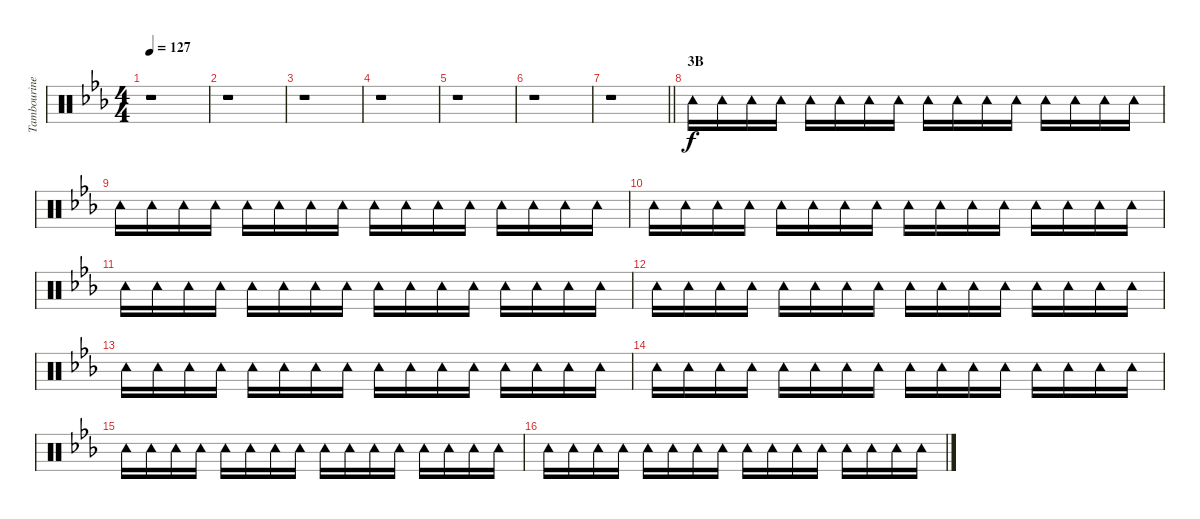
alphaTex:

\track ("Tambourine" "Tambourine") {instrument percussion}
\staff {score}
\articulation defaults
\ts (4 4)
\tempo 127
\clef neutral
\ks eb
r.1{dy mp} |
r.1 |
r.1 |
r.1 |
r.1 |
r.1 |
\barLineRight lightlight
r.1 |
\section ("" "3B")
"Tambourine (hit)".16{dy f} "Tambourine (hit)".16 "Tambourine (hit)".16 "Tambourine (hit)".16 "Tambourine (hit)".16 "Tambourine (hit)".16 "Tambourine (hit)".16 "Tambourine (hit)".16 "Tambourine (hit)".16 "Tambourine (hit)".16 "Tambourine (hit)".16 "Tambourine (hit)".16 "Tambourine (hit)".16 "Tambourine (hit)".16 "Tambourine (hit)".16 "Tambourine (hit)".16 |
"Tambourine (hit)".16 "Tambourine (hit)".16 "Tambourine (hit)".16 "Tambourine (hit)".16 "Tambourine (hit)".16 "Tambourine (hit)".16 "Tambourine (hit)".16 "Tambourine (hit)".16 "Tambourine (hit)".16 "Tambourine (hit)".16 "Tambourine (hit)".16 "Tambourine (hit)".16 "Tambourine (hit)".16 "Tambourine (hit)".16 "Tambourine (hit)".16 "Tambourine (hit)".16 |
"Tambourine (hit)".16 "Tambourine (hit)".16 "Tambourine (hit)".16 "Tambourine (hit)".16 "Tambourine (hit)".16 "Tambourine (hit)".16 "Tambourine (hit)".16 "Tambourine (hit)".16 "Tambourine (hit)".16 "Tambourine (hit)".16 "Tambourine (hit)".16 "Tambourine (hit)".16 "Tambourine (hit)".16 "Tambourine (hit)".16 "Tambourine (hit)".16 "Tambourine (hit)".16 |
"Tambourine (hit)".16 "Tambourine (hit)".16 "Tambourine (hit)".16 "Tambourine (hit)".16 "Tambourine (hit)".16 "Tambourine (hit)".16 "Tambourine (hit)".16 "Tambourine (hit)".16 "Tambourine (hit)".16 "Tambourine (hit)".16 "Tambourine (hit)".16 "Tambourine (hit)".16 "Tambourine (hit)".16 "Tambourine (hit)".16 "Tambourine (hit)".16 "Tambourine (hit)".16 |
"Tambourine (hit)".16 "Tambourine (hit)".16 "Tambourine (hit)".16 "Tambourine (hit)".16 "Tambourine (hit)".16 "Tambourine (hit)".16 "Tambourine (hit)".16 "Tambourine (hit)".16 "Tambourine (hit)".16 "Tambourine (hit)".16 "Tambourine (hit)".16 "Tambourine (hit)".16 "Tambourine (hit)".16 "Tambourine (hit)".16 "Tambourine (hit)".16 "Tambourine (hit)".16 |
"Tambourine (hit)".16 "Tambourine (hit)".16 "Tambourine (hit)".16 "Tambourine (hit)".16 "Tambourine (hit)".16 "Tambourine (hit)".16 "Tambourine (hit)".16 "Tambourine (hit)".16 "Tambourine (hit)".16 "Tambourine (hit)".16 "Tambourine (hit)".16 "Tambourine (hit)".16 "Tambourine (hit)".16 "Tambourine (hit)".16 "Tambourine (hit)".16 "Tambourine (hit)".16 |
"Tambourine (hit)".16 "Tambourine (hit)".16 "Tambourine (hit)".16 "Tambourine (hit)".16 "Tambourine (hit)".16 "Tambourine (hit)".16 "Tambourine (hit)".16 "Tambourine (hit)".16 "Tambourine (hit)".16 "Tambourine (hit)".16 "Tambourine (hit)".16 "Tambourine (hit)".16 "Tambourine (hit)".16 "Tambourine (hit)".16 "Tambourine (hit)".16 "Tambourine (hit)".16 |
"Tambourine (hit)".16 "Tambourine (hit)".16 "Tambourine (hit)".16 "Tambourine (hit)".16 "Tambourine (hit)".16 "Tambourine (hit)".16 "Tambourine (hit)".16 "Tambourine (hit)".16 "Tambourine (hit)".16 "Tambourine (hit)".16 "Tambourine (hit)".16 "Tambourine (hit)".16 "Tambourine (hit)".16 "Tambourine (hit)".16 "Tambourine (hit)".16 "Tambourine (hit)".16 |
"Tambourine (hit)".16 "Tambourine (hit)".16 "Tambourine (hit)".16 "Tambourine (hit)".16 "Tambourine (hit)".16 "Tambourine (hit)".16 "Tambourine (hit)".16 "Tambourine (hit)".16 "Tambourine (hit)".16 "Tambourine (hit)".16 "Tambourine (hit)".16 "Tambourine (hit)".16 "Tambourine (hit)".16 "Tambourine (hit)".16 "Tambourine (hit)".16 "Tambourine (hit)".16
